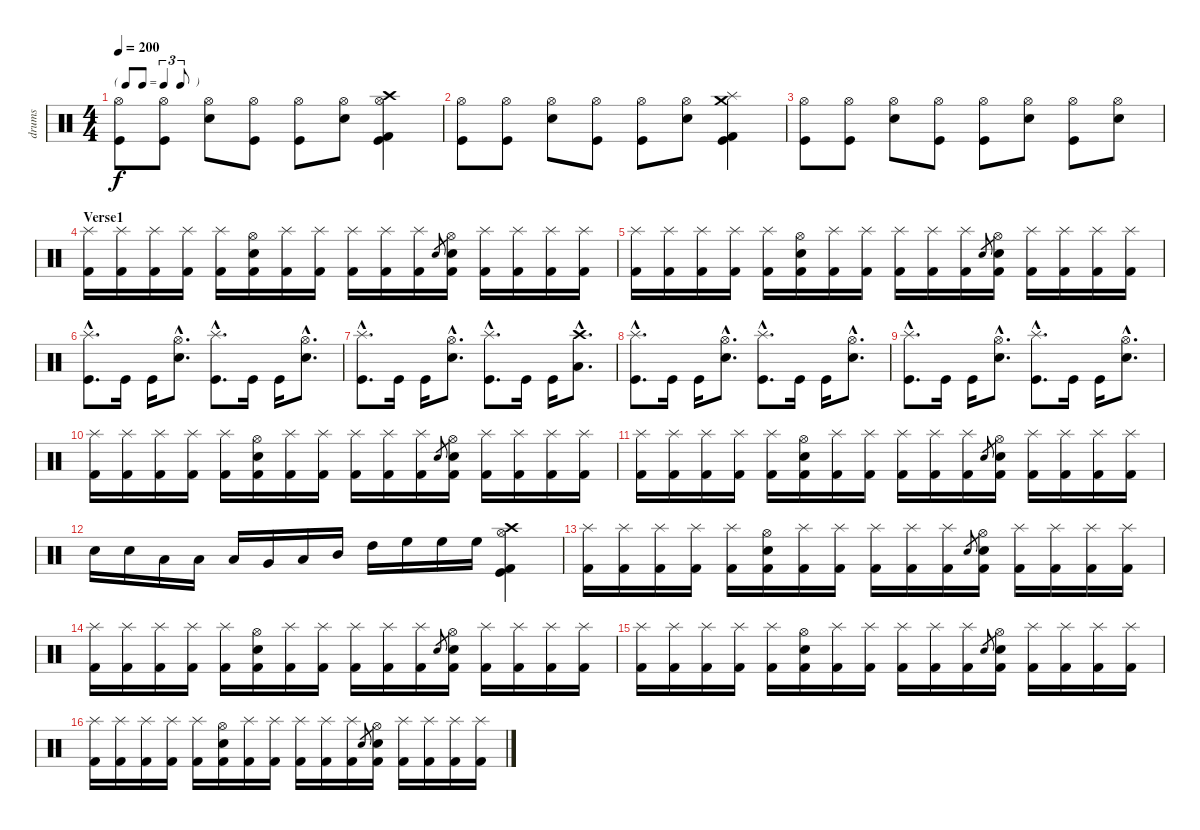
\track ("drums" "drums") {instrument percussion}
\staff {score}
\articulation defaults
\ts (4 4)
\tf triplet8th
\tempo 200
\clef neutral
\ks c
("Hi-Hat (open)" "Kick (hit)").8{dy f} ("Hi-Hat (open)" "Kick (hit)").8 ("Hi-Hat (open)" "Snare (hit) 2").8 ("Hi-Hat (open)" "Kick (hit)").8 ("Hi-Hat (open)" "Kick (hit)").8 ("Hi-Hat (open)" "Snare (hit) 2").8 ("Crash high (hit)" "Hi-Hat (open)" "Kick (hit)" "Kick (hit) 2").4 |
("Hi-Hat (open)" "Kick (hit)").8 ("Hi-Hat (open)" "Kick (hit)").8 ("Hi-Hat (open)" "Snare (hit) 2").8 ("Hi-Hat (open)" "Kick (hit)").8 ("Hi-Hat (open)" "Kick (hit)").8 ("Hi-Hat (open)" "Snare (hit) 2").8 ("Crash medium (hit)" "Splash (hit)" "Kick (hit)" "Kick (hit) 2").4 |
("Hi-Hat (open)" "Kick (hit)").8 ("Hi-Hat (open)" "Kick (hit)").8 ("Hi-Hat (open)" "Snare (hit) 2").8 ("Hi-Hat (open)" "Kick (hit)").8 ("Hi-Hat (open)" "Kick (hit)").8 ("Hi-Hat (open)" "Snare (hit) 2").8 ("Hi-Hat (open)" "Kick (hit)").8 ("Hi-Hat (open)" "Snare (hit) 2").8 |
\section ("" "Verse1")
("Kick (hit) 2" "Splash (hit)").16 ("Kick (hit) 2" "Splash (hit)").16 ("Kick (hit) 2" "Splash (hit)").16 ("Kick (hit) 2" "Splash (hit)").16 ("Kick (hit) 2" "Splash (hit)").16 ("Kick (hit) 2" "Electric Snare (hit)" "Hi-Hat (open)").16 ("Kick (hit) 2" "Splash (hit)").16 ("Kick (hit) 2" "Splash (hit)").16 ("Kick (hit) 2" "Splash (hit)").16 ("Kick (hit) 2" "Splash (hit)").16 ("Kick (hit) 2" "Splash (hit)").16 "Electric Snare (hit)".8{gr} ("Kick (hit) 2" "Electric Snare (hit)" "Hi-Hat (open)").16 ("Kick (hit) 2" "Splash (hit)").16 ("Kick (hit) 2" "Splash (hit)").16 ("Kick (hit) 2" "Splash (hit)").16 ("Kick (hit) 2" "Splash (hit)").16 |
("Kick (hit) 2" "Splash (hit)").16 ("Kick (hit) 2" "Splash (hit)").16 ("Kick (hit) 2" "Splash (hit)").16 ("Kick (hit) 2" "Splash (hit)").16 ("Kick (hit) 2" "Splash (hit)").16 ("Kick (hit) 2" "Electric Snare (hit)" "Hi-Hat (open)").16 ("Kick (hit) 2" "Splash (hit)").16 ("Kick (hit) 2" "Splash (hit)").16 ("Kick (hit) 2" "Splash (hit)").16 ("Kick (hit) 2" "Splash (hit)").16 ("Kick (hit) 2" "Splash (hit)").16 "Electric Snare (hit)".8{gr} ("Kick (hit) 2" "Electric Snare (hit)" "Hi-Hat (open)").16 ("Kick (hit) 2" "Splash (hit)").16 ("Kick (hit) 2" "Splash (hit)").16 ("Kick (hit) 2" "Splash (hit)").16 ("Kick (hit) 2" "Splash (hit)").16 |
("Splash (hit)"{hac} "Kick (hit)"{hac}).8{d} "Kick (hit)".16 "Kick (hit)".16 ("Hi-Hat (open)"{hac} "Electric Snare (hit)"{hac}).8{d} ("Splash (hit)"{hac} "Kick (hit)"{hac}).8{d} "Kick (hit)".16 "Kick (hit)".16 ("Hi-Hat (open)"{hac} "Electric Snare (hit)"{hac}).8{d} |
("Splash (hit)"{hac} "Kick (hit)"{hac}).8{d} "Kick (hit)".16 "Kick (hit)".16 ("Hi-Hat (open)"{hac} "Electric Snare (hit)"{hac}).8{d} ("Splash (hit)"{hac} "Kick (hit)"{hac}).8{d} "Kick (hit)".16 "Kick (hit)".16 ("Crash high (hit)"{hac} "Low Floor Tom (hit)"{hac}).8{d} |
("Splash (hit)"{hac} "Kick (hit)"{hac}).8{d} "Kick (hit)".16 "Kick (hit)".16 ("Hi-Hat (open)"{hac} "Electric Snare (hit)"{hac}).8{d} ("Splash (hit)"{hac} "Kick (hit)"{hac}).8{d} "Kick (hit)".16 "Kick (hit)".16 ("Hi-Hat (open)"{hac} "Electric Snare (hit)"{hac}).8{d} |
("Splash (hit)"{hac} "Kick (hit)"{hac}).8{d} "Kick (hit)".16 "Kick (hit)".16 ("Hi-Hat (open)"{hac} "Electric Snare (hit)"{hac}).8{d} ("Splash (hit)"{hac} "Kick (hit)"{hac}).8{d} "Kick (hit)".16 "Kick (hit)".16 ("Hi-Hat (open)"{hac} "Electric Snare (hit)"{hac}).8{d} |
("Kick (hit) 2" "Splash (hit)").16 ("Kick (hit) 2" "Splash (hit)").16 ("Kick (hit) 2" "Splash (hit)").16 ("Kick (hit) 2" "Splash (hit)").16 ("Kick (hit) 2" "Splash (hit)").16 ("Kick (hit) 2" "Electric Snare (hit)" "Hi-Hat (open)").16 ("Kick (hit) 2" "Splash (hit)").16 ("Kick (hit) 2" "Splash (hit)").16 ("Kick (hit) 2" "Splash (hit)").16 ("Kick (hit) 2" "Splash (hit)").16 ("Kick (hit) 2" "Splash (hit)").16 "Electric Snare (hit)".8{gr} ("Kick (hit) 2" "Electric Snare (hit)" "Hi-Hat (open)").16 ("Kick (hit) 2" "Splash (hit)").16 ("Kick (hit) 2" "Splash (hit)").16 ("Kick (hit) 2" "Splash (hit)").16 ("Kick (hit) 2" "Splash (hit)").16 |
("Kick (hit) 2" "Splash (hit)").16 ("Kick (hit) 2" "Splash (hit)").16 ("Kick (hit) 2" "Splash (hit)").16 ("Kick (hit) 2" "Splash (hit)").16 ("Kick (hit) 2" "Splash (hit)").16 ("Kick (hit) 2" "Electric Snare (hit)" "Hi-Hat (open)").16 ("Kick (hit) 2" "Splash (hit)").16 ("Kick (hit) 2" "Splash (hit)").16 ("Kick (hit) 2" "Splash (hit)").16 ("Kick (hit) 2" "Splash (hit)").16 ("Kick (hit) 2" "Splash (hit)").16 "Electric Snare (hit)".8{gr} ("Kick (hit) 2" "Electric Snare (hit)" "Hi-Hat (open)").16 ("Kick (hit) 2" "Splash (hit)").16 ("Kick (hit) 2" "Splash (hit)").16 ("Kick (hit) 2" "Splash (hit)").16 ("Kick (hit) 2" "Splash (hit)").16 |
"Electric Snare (hit)".16 "Snare (hit) 2".16 "Low Floor Tom (hit)".16 "Low Floor Tom (hit)".16 "Low Floor Tom (hit)".16 "Very Low Tom (hit)".16 "Low Tom (hit)".16 "Mid Tom (hit)".16 "High Tom (hit)".16 "High Floor Tom (hit)".16 "High Floor Tom (hit)".16 "High Floor Tom (hit)".16 ("Crash high (hit)" "Hi-Hat (open)" "Kick (hit)" "Kick (hit) 2").4 |
("Kick (hit) 2" "Splash (hit)").16 ("Kick (hit) 2" "Splash (hit)").16 ("Kick (hit) 2" "Splash (hit)").16 ("Kick (hit) 2" "Splash (hit)").16 ("Kick (hit) 2" "Splash (hit)").16 ("Kick (hit) 2" "Electric Snare (hit)" "Hi-Hat (open)").16 ("Kick (hit) 2" "Splash (hit)").16 ("Kick (hit) 2" "Splash (hit)").16 ("Kick (hit) 2" "Splash (hit)").16 ("Kick (hit) 2" "Splash (hit)").16 ("Kick (hit) 2" "Splash (hit)").16 "Electric Snare (hit)".8{gr} ("Kick (hit) 2" "Electric Snare (hit)" "Hi-Hat (open)").16 ("Kick (hit) 2" "Splash (hit)").16 ("Kick (hit) 2" "Splash (hit)").16 ("Kick (hit) 2" "Splash (hit)").16 ("Kick (hit) 2" "Splash (hit)").16 |
("Kick (hit) 2" "Splash (hit)").16 ("Kick (hit) 2" "Splash (hit)").16 ("Kick (hit) 2" "Splash (hit)").16 ("Kick (hit) 2" "Splash (hit)").16 ("Kick (hit) 2" "Splash (hit)").16 ("Kick (hit) 2" "Electric Snare (hit)" "Hi-Hat (open)").16 ("Kick (hit) 2" "Splash (hit)").16 ("Kick (hit) 2" "Splash (hit)").16 ("Kick (hit) 2" "Splash (hit)").16 ("Kick (hit) 2" "Splash (hit)").16 ("Kick (hit) 2" "Splash (hit)").16 "Electric Snare (hit)".8{gr} ("Kick (hit) 2" "Electric Snare (hit)" "Hi-Hat (open)").16 ("Kick (hit) 2" "Splash (hit)").16 ("Kick (hit) 2" "Splash (hit)").16 ("Kick (hit) 2" "Splash (hit)").16 ("Kick (hit) 2" "Splash (hit)").16 |
("Kick (hit) 2" "Splash (hit)").16 ("Kick (hit) 2" "Splash (hit)").16 ("Kick (hit) 2" "Splash (hit)").16 ("Kick (hit) 2" "Splash (hit)").16 ("Kick (hit) 2" "Splash (hit)").16 ("Kick (hit) 2" "Electric Snare (hit)" "Hi-Hat (open)").16 ("Kick (hit) 2" "Splash (hit)").16 ("Kick (hit) 2" "Splash (hit)").16 ("Kick (hit) 2" "Splash (hit)").16 ("Kick (hit) 2" "Splash (hit)").16 ("Kick (hit) 2" "Splash (hit)").16 "Electric Snare (hit)".8{gr} ("Kick (hit) 2" "Electric Snare (hit)" "Hi-Hat (open)").16 ("Kick (hit) 2" "Splash (hit)").16 ("Kick (hit) 2" "Splash (hit)").16 ("Kick (hit) 2" "Splash (hit)").16 ("Kick (hit) 2" "Splash (hit)").16 |
("Kick (hit) 2" "Splash (hit)").16 ("Kick (hit) 2" "Splash (hit)").16 ("Kick (hit) 2" "Splash (hit)").16 ("Kick (hit) 2" "Splash (hit)").16 ("Kick (hit) 2" "Splash (hit)").16 ("Kick (hit) 2" "Electric Snare (hit)" "Hi-Hat (open)").16 ("Kick (hit) 2" "Splash (hit)").16 ("Kick (hit) 2" "Splash (hit)").16 ("Kick (hit) 2" "Splash (hit)").16 ("Kick (hit) 2" "Splash (hit)").16 ("Kick (hit) 2" "Splash (hit)").16 "Electric Snare (hit)".8{gr} ("Kick (hit) 2" "Electric Snare (hit)" "Hi-Hat (open)").16 ("Kick (hit) 2" "Splash (hit)").16 ("Kick (hit) 2" "Splash (hit)").16 ("Kick (hit) 2" "Splash (hit)").16 ("Kick (hit) 2" "Splash (hit)").16
